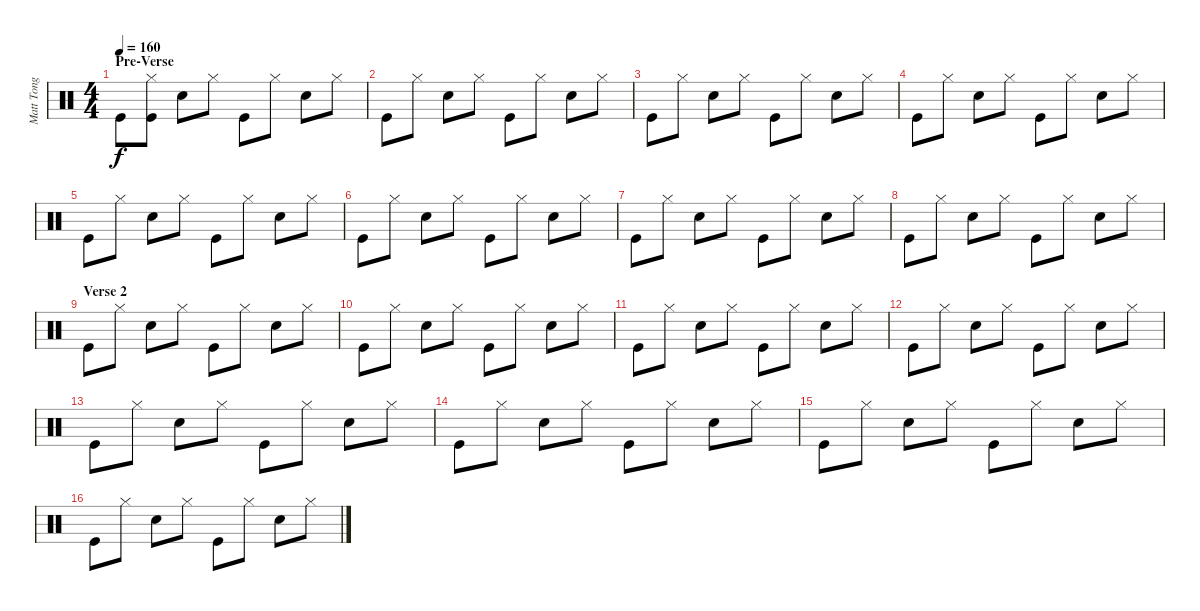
\track ("Matt Tong" "Matt Tong") {instrument percussion}
\staff {score}
\articulation defaults
\ts (4 4)
\section ("" "Pre-Verse")
\tempo 160
\clef neutral
\ks c "Kick (hit)".8{dy f}
("Hi-Hat (closed)" "Kick (hit)").8 "Electric Snare (hit)".8 "Hi-Hat (closed)".8 "Kick (hit)".8 "Hi-Hat (closed)".8 "Electric Snare (hit)".8 "Hi-Hat (closed)".8 |
"Kick (hit)".8 "Hi-Hat (closed)".8 "Electric Snare (hit)".8 "Hi-Hat (closed)".8 "Kick (hit)".8 "Hi-Hat (closed)".8 "Electric Snare (hit)".8 "Hi-Hat (closed)".8 |
"Kick (hit)".8 "Hi-Hat (closed)".8 "Electric Snare (hit)".8 "Hi-Hat (closed)".8 "Kick (hit)".8 "Hi-Hat (closed)".8 "Electric Snare (hit)".8 "Hi-Hat (closed)".8 |
"Kick (hit)".8 "Hi-Hat (closed)".8 "Electric Snare (hit)".8 "Hi-Hat (closed)".8 "Kick (hit)".8 "Hi-Hat (closed)".8 "Electric Snare (hit)".8 "Hi-Hat (closed)".8 |
"Kick (hit)".8 "Hi-Hat (closed)".8 "Electric Snare (hit)".8 "Hi-Hat (closed)".8 "Kick (hit)".8 "Hi-Hat (closed)".8 "Electric Snare (hit)".8 "Hi-Hat (closed)".8 |
"Kick (hit)".8 "Hi-Hat (closed)".8 "Electric Snare (hit)".8 "Hi-Hat (closed)".8 "Kick (hit)".8 "Hi-Hat (closed)".8 "Electric Snare (hit)".8 "Hi-Hat (closed)".8 |
"Kick (hit)".8 "Hi-Hat (closed)".8 "Electric Snare (hit)".8 "Hi-Hat (closed)".8 "Kick (hit)".8 "Hi-Hat (closed)".8 "Electric Snare (hit)".8 "Hi-Hat (closed)".8 |
"Kick (hit)".8 "Hi-Hat (closed)".8 "Electric Snare (hit)".8 "Hi-Hat (closed)".8 "Kick (hit)".8 "Hi-Hat (closed)".8 "Electric Snare (hit)".8 "Hi-Hat (closed)".8 |
\section ("" "Verse 2")
"Kick (hit)".8 "Hi-Hat (closed)".8 "Electric Snare (hit)".8 "Hi-Hat (closed)".8 "Kick (hit)".8 "Hi-Hat (closed)".8 "Electric Snare (hit)".8 "Hi-Hat (closed)".8 |
"Kick (hit)".8 "Hi-Hat (closed)".8 "Electric Snare (hit)".8 "Hi-Hat (closed)".8 "Kick (hit)".8 "Hi-Hat (closed)".8 "Electric Snare (hit)".8 "Hi-Hat (closed)".8 |
"Kick (hit)".8 "Hi-Hat (closed)".8 "Electric Snare (hit)".8 "Hi-Hat (closed)".8 "Kick (hit)".8 "Hi-Hat (closed)".8 "Electric Snare (hit)".8 "Hi-Hat (closed)".8 |
"Kick (hit)".8 "Hi-Hat (closed)".8 "Electric Snare (hit)".8 "Hi-Hat (closed)".8 "Kick (hit)".8 "Hi-Hat (closed)".8 "Electric Snare (hit)".8 "Hi-Hat (closed)".8 |
"Kick (hit)".8 "Hi-Hat (closed)".8 "Electric Snare (hit)".8 "Hi-Hat (closed)".8 "Kick (hit)".8 "Hi-Hat (closed)".8 "Electric Snare (hit)".8 "Hi-Hat (closed)".8 |
"Kick (hit)".8 "Hi-Hat (closed)".8 "Electric Snare (hit)".8 "Hi-Hat (closed)".8 "Kick (hit)".8 "Hi-Hat (closed)".8 "Electric Snare (hit)".8 "Hi-Hat (closed)".8 |
"Kick (hit)".8 "Hi-Hat (closed)".8 "Electric Snare (hit)".8 "Hi-Hat (closed)".8 "Kick (hit)".8 "Hi-Hat (closed)".8 "Electric Snare (hit)".8 "Hi-Hat (closed)".8 |
"Kick (hit)".8 "Hi-Hat (closed)".8 "Electric Snare (hit)".8 "Hi-Hat (closed)".8 "Kick (hit)".8 "Hi-Hat (closed)".8 "Electric Snare (hit)".8 "Hi-Hat (closed)".8
